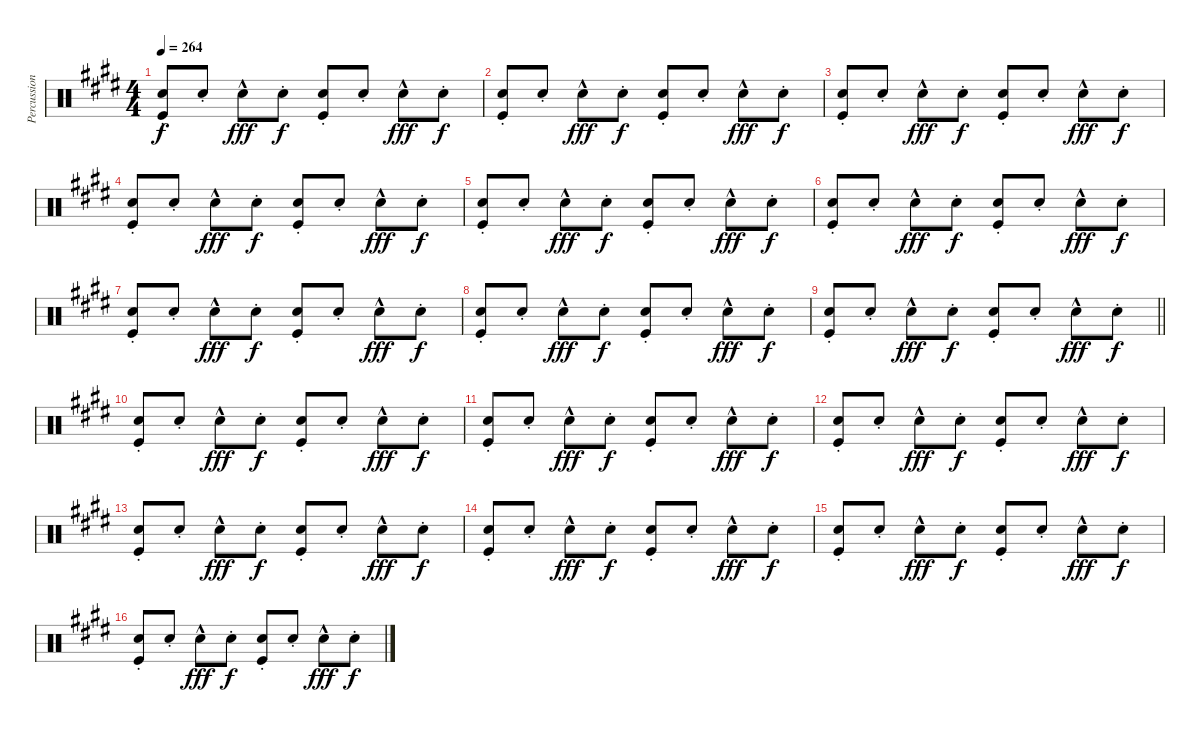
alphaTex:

\track ("Percussion" "Percussion") {instrument percussion}
\staff {score}
\articulation defaults
\ts (4 4)
\tempo 264
\clef neutral
\ks e
("Snare (hit) 2"{st} "Kick (hit)").8{dy f} "Snare (hit) 2"{st}.8 "Snare (hit) 2"{hac}.8{dy fff} "Snare (hit) 2"{st}.8{dy f} ("Snare (hit) 2"{st} "Kick (hit)").8 "Snare (hit) 2"{st}.8 "Snare (hit) 2"{hac}.8{dy fff} "Snare (hit) 2"{st}.8{dy f} |
("Snare (hit) 2"{st} "Kick (hit)").8 "Snare (hit) 2"{st}.8 "Snare (hit) 2"{hac}.8{dy fff} "Snare (hit) 2"{st}.8{dy f} ("Snare (hit) 2"{st} "Kick (hit)").8 "Snare (hit) 2"{st}.8 "Snare (hit) 2"{hac}.8{dy fff} "Snare (hit) 2"{st}.8{dy f} |
("Snare (hit) 2"{st} "Kick (hit)").8 "Snare (hit) 2"{st}.8 "Snare (hit) 2"{hac}.8{dy fff} "Snare (hit) 2"{st}.8{dy f} ("Snare (hit) 2"{st} "Kick (hit)").8 "Snare (hit) 2"{st}.8 "Snare (hit) 2"{hac}.8{dy fff} "Snare (hit) 2"{st}.8{dy f} |
("Snare (hit) 2"{st} "Kick (hit)").8 "Snare (hit) 2"{st}.8 "Snare (hit) 2"{hac}.8{dy fff} "Snare (hit) 2"{st}.8{dy f} ("Snare (hit) 2"{st} "Kick (hit)").8 "Snare (hit) 2"{st}.8 "Snare (hit) 2"{hac}.8{dy fff} "Snare (hit) 2"{st}.8{dy f} |
("Snare (hit) 2"{st} "Kick (hit)").8 "Snare (hit) 2"{st}.8 "Snare (hit) 2"{hac}.8{dy fff} "Snare (hit) 2"{st}.8{dy f} ("Snare (hit) 2"{st} "Kick (hit)").8 "Snare (hit) 2"{st}.8 "Snare (hit) 2"{hac}.8{dy fff} "Snare (hit) 2"{st}.8{dy f} |
("Snare (hit) 2"{st} "Kick (hit)").8 "Snare (hit) 2"{st}.8 "Snare (hit) 2"{hac}.8{dy fff} "Snare (hit) 2"{st}.8{dy f} ("Snare (hit) 2"{st} "Kick (hit)").8 "Snare (hit) 2"{st}.8 "Snare (hit) 2"{hac}.8{dy fff} "Snare (hit) 2"{st}.8{dy f} |
("Snare (hit) 2"{st} "Kick (hit)").8 "Snare (hit) 2"{st}.8 "Snare (hit) 2"{hac}.8{dy fff} "Snare (hit) 2"{st}.8{dy f} ("Snare (hit) 2"{st} "Kick (hit)").8 "Snare (hit) 2"{st}.8 "Snare (hit) 2"{hac}.8{dy fff} "Snare (hit) 2"{st}.8{dy f} |
("Snare (hit) 2"{st} "Kick (hit)").8 "Snare (hit) 2"{st}.8 "Snare (hit) 2"{hac}.8{dy fff} "Snare (hit) 2"{st}.8{dy f} ("Snare (hit) 2"{st} "Kick (hit)").8 "Snare (hit) 2"{st}.8 "Snare (hit) 2"{hac}.8{dy fff} "Snare (hit) 2"{st}.8{dy f} |
\barLineRight lightlight
("Snare (hit) 2"{st} "Kick (hit)").8 "Snare (hit) 2"{st}.8 "Snare (hit) 2"{hac}.8{dy fff} "Snare (hit) 2"{st}.8{dy f} ("Snare (hit) 2"{st} "Kick (hit)").8 "Snare (hit) 2"{st}.8 "Snare (hit) 2"{hac}.8{dy fff} "Snare (hit) 2"{st}.8{dy f} |
("Snare (hit) 2"{st} "Kick (hit)").8 "Snare (hit) 2"{st}.8 "Snare (hit) 2"{hac}.8{dy fff} "Snare (hit) 2"{st}.8{dy f} ("Snare (hit) 2"{st} "Kick (hit)").8 "Snare (hit) 2"{st}.8 "Snare (hit) 2"{hac}.8{dy fff} "Snare (hit) 2"{st}.8{dy f} |
("Snare (hit) 2"{st} "Kick (hit)").8 "Snare (hit) 2"{st}.8 "Snare (hit) 2"{hac}.8{dy fff} "Snare (hit) 2"{st}.8{dy f} ("Snare (hit) 2"{st} "Kick (hit)").8 "Snare (hit) 2"{st}.8 "Snare (hit) 2"{hac}.8{dy fff} "Snare (hit) 2"{st}.8{dy f} |
("Snare (hit) 2"{st} "Kick (hit)").8 "Snare (hit) 2"{st}.8 "Snare (hit) 2"{hac}.8{dy fff} "Snare (hit) 2"{st}.8{dy f} ("Snare (hit) 2"{st} "Kick (hit)").8 "Snare (hit) 2"{st}.8 "Snare (hit) 2"{hac}.8{dy fff} "Snare (hit) 2"{st}.8{dy f} |
("Snare (hit) 2"{st} "Kick (hit)").8 "Snare (hit) 2"{st}.8 "Snare (hit) 2"{hac}.8{dy fff} "Snare (hit) 2"{st}.8{dy f} ("Snare (hit) 2"{st} "Kick (hit)").8 "Snare (hit) 2"{st}.8 "Snare (hit) 2"{hac}.8{dy fff} "Snare (hit) 2"{st}.8{dy f} |
("Snare (hit) 2"{st} "Kick (hit)").8 "Snare (hit) 2"{st}.8 "Snare (hit) 2"{hac}.8{dy fff} "Snare (hit) 2"{st}.8{dy f} ("Snare (hit) 2"{st} "Kick (hit)").8 "Snare (hit) 2"{st}.8 "Snare (hit) 2"{hac}.8{dy fff} "Snare (hit) 2"{st}.8{dy f} |
("Snare (hit) 2"{st} "Kick (hit)").8 "Snare (hit) 2"{st}.8 "Snare (hit) 2"{hac}.8{dy fff} "Snare (hit) 2"{st}.8{dy f} ("Snare (hit) 2"{st} "Kick (hit)").8 "Snare (hit) 2"{st}.8 "Snare (hit) 2"{hac}.8{dy fff} "Snare (hit) 2"{st}.8{dy f} |
("Snare (hit) 2"{st} "Kick (hit)").8 "Snare (hit) 2"{st}.8 "Snare (hit) 2"{hac}.8{dy fff} "Snare (hit) 2"{st}.8{dy f} ("Snare (hit) 2"{st} "Kick (hit)").8 "Snare (hit) 2"{st}.8 "Snare (hit) 2"{hac}.8{dy fff} "Snare (hit) 2"{st}.8{dy f}
